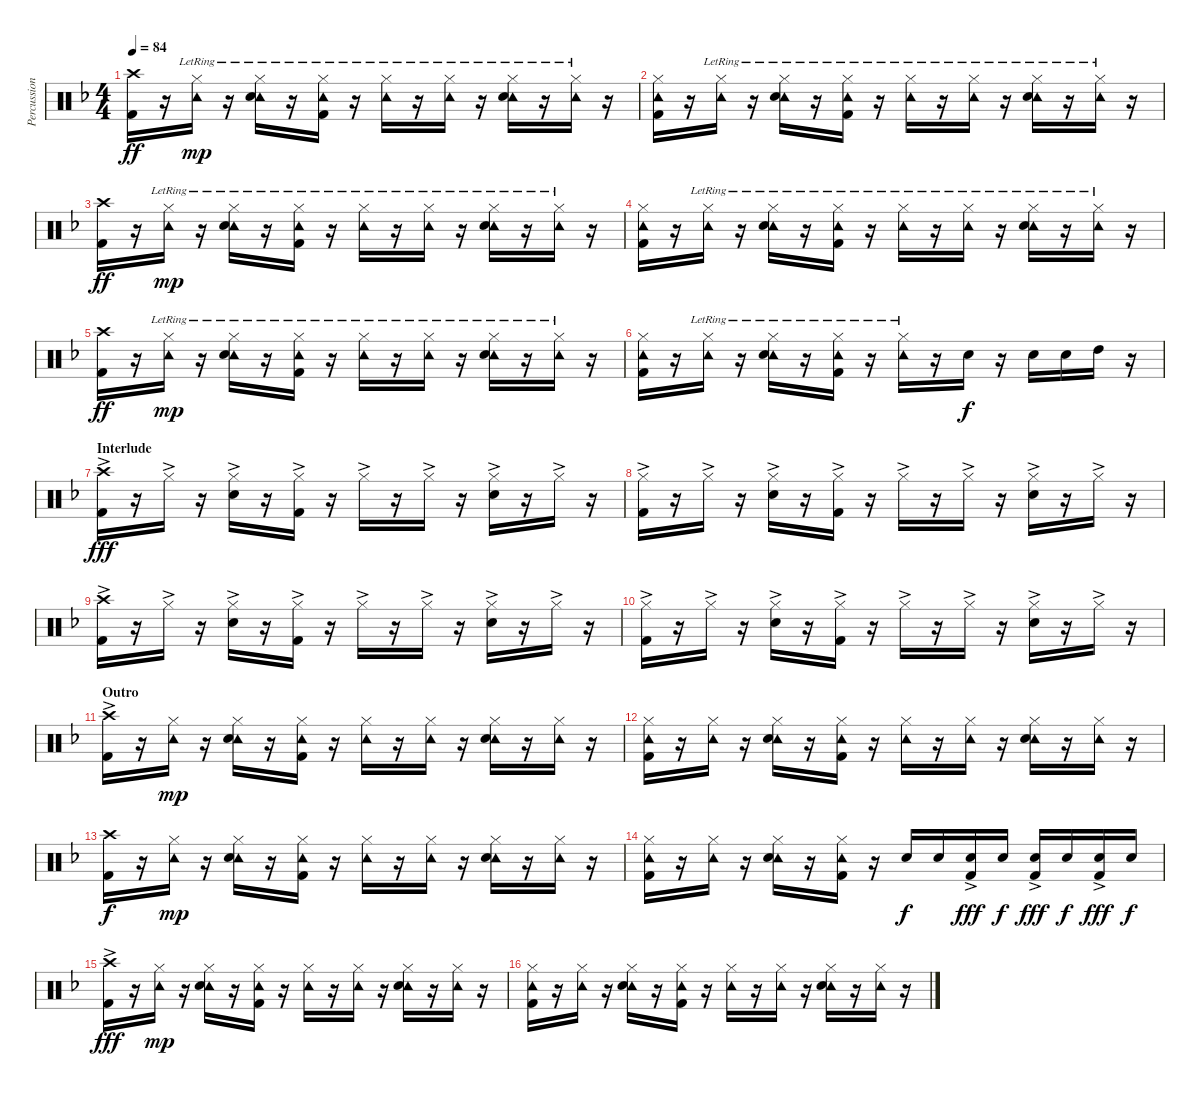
\track ("Percussion" "Percussion") {instrument percussion}
\staff {score}
\articulation defaults
\ts (4 4)
\tempo 84
\clef neutral
\ks f
("Crash high (hit)" "Kick (hit) 2").16{dy ff} r.16 ("Hi-Hat (closed)" "Tambourine (hit)"{lr}).16{dy mp} r.16 ("Hi-Hat (closed)" "Tambourine (hit)"{lr} "Snare (hit) 2").16 r.16 ("Hi-Hat (closed)" "Tambourine (hit)"{lr} "Kick (hit) 2").16 r.16 ("Hi-Hat (closed)" "Tambourine (hit)"{lr}).16 r.16 ("Hi-Hat (closed)" "Tambourine (hit)"{lr}).16 r.16 ("Hi-Hat (closed)" "Tambourine (hit)"{lr} "Snare (hit) 2").16 r.16 ("Hi-Hat (closed)" "Tambourine (hit)"{lr}).16 r.16 |
("Hi-Hat (closed)" "Tambourine (hit)" "Kick (hit) 2").16 r.16 ("Hi-Hat (closed)" "Tambourine (hit)"{lr}).16 r.16 ("Hi-Hat (closed)" "Tambourine (hit)"{lr} "Snare (hit) 2").16 r.16 ("Hi-Hat (closed)" "Tambourine (hit)"{lr} "Kick (hit) 2").16 r.16 ("Hi-Hat (closed)" "Tambourine (hit)"{lr}).16 r.16 ("Hi-Hat (closed)" "Tambourine (hit)"{lr}).16 r.16 ("Hi-Hat (closed)" "Tambourine (hit)"{lr} "Snare (hit) 2").16 r.16 ("Hi-Hat (closed)" "Tambourine (hit)"{lr}).16 r.16 |
("Crash high (hit)" "Kick (hit) 2").16{dy ff} r.16 ("Hi-Hat (closed)" "Tambourine (hit)"{lr}).16{dy mp} r.16 ("Hi-Hat (closed)" "Tambourine (hit)"{lr} "Snare (hit) 2").16 r.16 ("Hi-Hat (closed)" "Tambourine (hit)"{lr} "Kick (hit) 2").16 r.16 ("Hi-Hat (closed)" "Tambourine (hit)"{lr}).16 r.16 ("Hi-Hat (closed)" "Tambourine (hit)"{lr}).16 r.16 ("Hi-Hat (closed)" "Tambourine (hit)"{lr} "Snare (hit) 2").16 r.16 ("Hi-Hat (closed)" "Tambourine (hit)"{lr}).16 r.16 |
("Hi-Hat (closed)" "Tambourine (hit)" "Kick (hit) 2").16 r.16 ("Hi-Hat (closed)" "Tambourine (hit)"{lr}).16 r.16 ("Hi-Hat (closed)" "Tambourine (hit)"{lr} "Snare (hit) 2").16 r.16 ("Hi-Hat (closed)" "Tambourine (hit)"{lr} "Kick (hit) 2").16 r.16 ("Hi-Hat (closed)" "Tambourine (hit)"{lr}).16 r.16 ("Hi-Hat (closed)" "Tambourine (hit)"{lr}).16 r.16 ("Hi-Hat (closed)" "Tambourine (hit)"{lr} "Snare (hit) 2").16 r.16 ("Hi-Hat (closed)" "Tambourine (hit)"{lr}).16 r.16 |
("Crash high (hit)" "Kick (hit) 2").16{dy ff} r.16 ("Hi-Hat (closed)" "Tambourine (hit)"{lr}).16{dy mp} r.16 ("Hi-Hat (closed)" "Tambourine (hit)"{lr} "Snare (hit) 2").16 r.16 ("Hi-Hat (closed)" "Tambourine (hit)"{lr} "Kick (hit) 2").16 r.16 ("Hi-Hat (closed)" "Tambourine (hit)"{lr}).16 r.16 ("Hi-Hat (closed)" "Tambourine (hit)"{lr}).16 r.16 ("Hi-Hat (closed)" "Tambourine (hit)"{lr} "Snare (hit) 2").16 r.16 ("Hi-Hat (closed)" "Tambourine (hit)"{lr}).16 r.16 |
("Hi-Hat (closed)" "Tambourine (hit)" "Kick (hit) 2").16 r.16 ("Hi-Hat (closed)" "Tambourine (hit)"{lr}).16 r.16 ("Hi-Hat (closed)" "Tambourine (hit)"{lr} "Snare (hit) 2").16 r.16 ("Hi-Hat (closed)" "Tambourine (hit)"{lr} "Kick (hit) 2").16 r.16 ("Hi-Hat (closed)" "Tambourine (hit)"{lr}).16 r.16 "Snare (hit) 2".16{dy f} r.16 "Snare (hit) 2".16 "Snare (hit) 2".16 "High Tom (hit)".16 r.16 |
\section ("" "Interlude")
("Crash high (hit)"{ac} "Kick (hit) 2").16{dy fff} r.16 "Hi-Hat (closed)"{ac}.16 r.16 ("Hi-Hat (closed)"{ac} "Snare (hit) 2").16 r.16 ("Hi-Hat (closed)"{ac} "Kick (hit) 2").16 r.16 "Hi-Hat (closed)"{ac}.16 r.16 "Hi-Hat (closed)"{ac}.16 r.16 ("Hi-Hat (closed)"{ac} "Snare (hit) 2").16 r.16 "Hi-Hat (closed)"{ac}.16 r.16 |
("Hi-Hat (closed)"{ac} "Kick (hit) 2").16 r.16 "Hi-Hat (closed)"{ac}.16 r.16 ("Hi-Hat (closed)"{ac} "Snare (hit) 2").16 r.16 ("Hi-Hat (closed)"{ac} "Kick (hit) 2").16 r.16 "Hi-Hat (closed)"{ac}.16 r.16 "Hi-Hat (closed)"{ac}.16 r.16 ("Hi-Hat (closed)"{ac} "Snare (hit) 2").16 r.16 "Hi-Hat (closed)"{ac}.16 r.16 |
("Crash high (hit)"{ac} "Kick (hit) 2").16 r.16 "Hi-Hat (closed)"{ac}.16 r.16 ("Hi-Hat (closed)"{ac} "Snare (hit) 2").16 r.16 ("Hi-Hat (closed)"{ac} "Kick (hit) 2").16 r.16 "Hi-Hat (closed)"{ac}.16 r.16 "Hi-Hat (closed)"{ac}.16 r.16 ("Hi-Hat (closed)"{ac} "Snare (hit) 2").16 r.16 "Hi-Hat (closed)"{ac}.16 r.16 |
("Hi-Hat (closed)"{ac} "Kick (hit) 2").16 r.16 "Hi-Hat (closed)"{ac}.16 r.16 ("Hi-Hat (closed)"{ac} "Snare (hit) 2").16 r.16 ("Hi-Hat (closed)"{ac} "Kick (hit) 2").16 r.16 "Hi-Hat (closed)"{ac}.16 r.16 "Hi-Hat (closed)"{ac}.16 r.16 ("Hi-Hat (closed)"{ac} "Snare (hit) 2").16 r.16 "Hi-Hat (closed)"{ac}.16 r.16 |
\section ("" "Outro")
("Crash high (hit)"{ac} "Kick (hit) 2").16 r.16 ("Hi-Hat (closed)" "Tambourine (hit)").16{dy mp} r.16 ("Hi-Hat (closed)" "Tambourine (hit)" "Snare (hit) 2").16 r.16 ("Hi-Hat (closed)" "Tambourine (hit)" "Kick (hit) 2").16 r.16 ("Hi-Hat (closed)" "Tambourine (hit)").16 r.16 ("Hi-Hat (closed)" "Tambourine (hit)").16 r.16 ("Hi-Hat (closed)" "Tambourine (hit)" "Snare (hit) 2").16 r.16 ("Hi-Hat (closed)" "Tambourine (hit)").16 r.16 |
("Hi-Hat (closed)" "Tambourine (hit)" "Kick (hit) 2").16 r.16 ("Hi-Hat (closed)" "Tambourine (hit)").16 r.16 ("Hi-Hat (closed)" "Tambourine (hit)" "Snare (hit) 2").16 r.16 ("Hi-Hat (closed)" "Tambourine (hit)" "Kick (hit) 2").16 r.16 ("Hi-Hat (closed)" "Tambourine (hit)").16 r.16 ("Hi-Hat (closed)" "Tambourine (hit)").16 r.16 ("Hi-Hat (closed)" "Tambourine (hit)" "Snare (hit) 2").16 r.16 ("Hi-Hat (closed)" "Tambourine (hit)").16 r.16 |
("Crash high (hit)" "Kick (hit) 2").16{dy f} r.16 ("Hi-Hat (closed)" "Tambourine (hit)").16{dy mp} r.16 ("Hi-Hat (closed)" "Tambourine (hit)" "Snare (hit) 2").16 r.16 ("Hi-Hat (closed)" "Tambourine (hit)" "Kick (hit) 2").16 r.16 ("Hi-Hat (closed)" "Tambourine (hit)").16 r.16 ("Hi-Hat (closed)" "Tambourine (hit)").16 r.16 ("Hi-Hat (closed)" "Tambourine (hit)" "Snare (hit) 2").16 r.16 ("Hi-Hat (closed)" "Tambourine (hit)").16 r.16 |
("Hi-Hat (closed)" "Tambourine (hit)" "Kick (hit) 2").16 r.16 ("Hi-Hat (closed)" "Tambourine (hit)").16 r.16 ("Hi-Hat (closed)" "Tambourine (hit)" "Snare (hit) 2").16 r.16 ("Hi-Hat (closed)" "Tambourine (hit)" "Kick (hit) 2").16 r.16 "Snare (hit) 2".16{dy f} "Snare (hit) 2".16 ("Snare (hit) 2"{ac} "Kick (hit) 2").16{dy fff} "Snare (hit) 2".16{dy f} ("Snare (hit) 2"{ac} "Kick (hit) 2").16{dy fff} "Snare (hit) 2".16{dy f} ("Snare (hit) 2"{ac} "Kick (hit) 2").16{dy fff} "Snare (hit) 2".16{dy f} |
("Crash high (hit)"{ac} "Kick (hit) 2").16{dy fff} r.16 ("Hi-Hat (closed)" "Tambourine (hit)").16{dy mp} r.16 ("Hi-Hat (closed)" "Tambourine (hit)" "Snare (hit) 2").16 r.16 ("Hi-Hat (closed)" "Tambourine (hit)" "Kick (hit) 2").16 r.16 ("Hi-Hat (closed)" "Tambourine (hit)").16 r.16 ("Hi-Hat (closed)" "Tambourine (hit)").16 r.16 ("Hi-Hat (closed)" "Tambourine (hit)" "Snare (hit) 2").16 r.16 ("Hi-Hat (closed)" "Tambourine (hit)").16 r.16 |
("Hi-Hat (closed)" "Tambourine (hit)" "Kick (hit) 2").16 r.16 ("Hi-Hat (closed)" "Tambourine (hit)").16 r.16 ("Hi-Hat (closed)" "Tambourine (hit)" "Snare (hit) 2").16 r.16 ("Hi-Hat (closed)" "Tambourine (hit)" "Kick (hit) 2").16 r.16 ("Hi-Hat (closed)" "Tambourine (hit)").16 r.16 ("Hi-Hat (closed)" "Tambourine (hit)").16 r.16 ("Hi-Hat (closed)" "Tambourine (hit)" "Snare (hit) 2").16 r.16 ("Hi-Hat (closed)" "Tambourine (hit)").16 r.16
